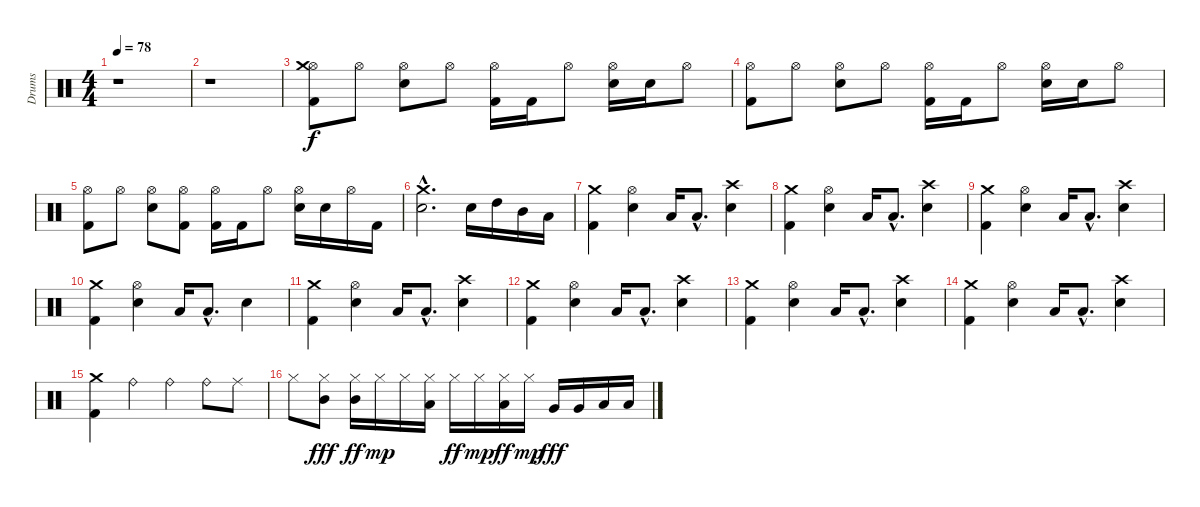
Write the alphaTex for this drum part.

\track ("Drums" "Drums") {instrument percussion}
\staff {score}
\articulation defaults
\ts (4 4)
\tempo 78
\clef neutral
\ks c
r.1{dy f} |
r.1 |
("Kick (hit) 2" "Hi-Hat (open)" "Crash medium (hit)").8 "Hi-Hat (open)".8 ("Electric Snare (hit)" "Hi-Hat (open)").8 "Hi-Hat (open)".8 ("Kick (hit) 2" "Hi-Hat (open)").16 "Kick (hit) 2".16 "Hi-Hat (open)".8 ("Electric Snare (hit)" "Hi-Hat (open)").16 "Electric Snare (hit)".16 "Hi-Hat (open)".8 |
("Kick (hit) 2" "Hi-Hat (open)").8 "Hi-Hat (open)".8 ("Electric Snare (hit)" "Hi-Hat (open)").8 "Hi-Hat (open)".8 ("Kick (hit) 2" "Hi-Hat (open)").16 "Kick (hit) 2".16 "Hi-Hat (open)".8 ("Electric Snare (hit)" "Hi-Hat (open)").16 "Electric Snare (hit)".16 "Hi-Hat (open)".8 |
("Kick (hit) 2" "Hi-Hat (open)").8 "Hi-Hat (open)".8 ("Electric Snare (hit)" "Hi-Hat (open)").8 ("Kick (hit) 2" "Hi-Hat (open)").8 ("Kick (hit) 2" "Hi-Hat (open)").16 "Kick (hit) 2".16 "Hi-Hat (open)".8 ("Electric Snare (hit)" "Hi-Hat (open)").16 "Electric Snare (hit)".16 "Hi-Hat (open)".16 "Kick (hit) 2".16 |
("Electric Snare (hit)"{hac} "Crash medium (hit)"{hac}).2{d} "Electric Snare (hit)".16 "High Tom (hit)".16 "Mid Tom (hit)".16 "Low Tom (hit)".16 |
("Kick (hit) 2" "Crash medium (hit)").4 ("Electric Snare (hit)" "Hi-Hat (open)").4 "Low Tom (hit)".16 "Low Tom (hit)"{hac}.8{d} ("Electric Snare (hit)" "Crash high (hit)").4 |
("Kick (hit) 2" "Crash medium (hit)").4 ("Electric Snare (hit)" "Hi-Hat (open)").4 "Low Tom (hit)".16 "Low Tom (hit)"{hac}.8{d} ("Electric Snare (hit)" "Crash high (hit)").4 |
("Kick (hit) 2" "Crash medium (hit)").4 ("Electric Snare (hit)" "Hi-Hat (open)").4 "Low Tom (hit)".16 "Low Tom (hit)"{hac}.8{d} ("Electric Snare (hit)" "Crash high (hit)").4 |
("Kick (hit) 2" "Crash medium (hit)").4 ("Electric Snare (hit)" "Hi-Hat (open)").4 "Low Tom (hit)".16 "Low Tom (hit)"{hac}.8{d} "Electric Snare (hit)".4 |
("Kick (hit) 2" "Crash medium (hit)").4 ("Electric Snare (hit)" "Hi-Hat (open)").4 "Low Tom (hit)".16 "Low Tom (hit)"{hac}.8{d} ("Electric Snare (hit)" "Crash high (hit)").4 |
("Kick (hit) 2" "Crash medium (hit)").4 ("Electric Snare (hit)" "Hi-Hat (open)").4 "Low Tom (hit)".16 "Low Tom (hit)"{hac}.8{d} ("Electric Snare (hit)" "Crash high (hit)").4 |
("Kick (hit) 2" "Crash medium (hit)").4 ("Electric Snare (hit)" "Hi-Hat (open)").4 "Low Tom (hit)".16 "Low Tom (hit)"{hac}.8{d} ("Electric Snare (hit)" "Crash high (hit)").4 |
("Kick (hit) 2" "Crash medium (hit)").4 ("Electric Snare (hit)" "Hi-Hat (open)").4 "Low Tom (hit)".16 "Low Tom (hit)"{hac}.8{d} ("Electric Snare (hit)" "Crash high (hit)").4 |
("Kick (hit) 2" "Crash medium (hit)").4 "Ride (bell)".4 "Ride (bell)".4 "Ride (bell)".8 "Ride (middle)".8 |
"Hi-Hat (closed)".8 ("Mid Tom (hit)" "Hi-Hat (closed)").8{dy fff} ("Mid Tom (hit)" "Hi-Hat (closed)").16{dy ff} "Hi-Hat (closed)".16{dy mp} "Hi-Hat (closed)".16 ("Low Tom (hit)" "Hi-Hat (closed)").16 "Hi-Hat (closed)".16{dy ff} "Hi-Hat (closed)".16{dy mp} ("Low Tom (hit)" "Hi-Hat (closed)").16{dy ff} "Hi-Hat (closed)".16{dy mp} "Very Low Tom (hit)".16{dy fff} "Very Low Tom (hit)".16 "Low Floor Tom (hit)".16 "Low Floor Tom (hit)".16
